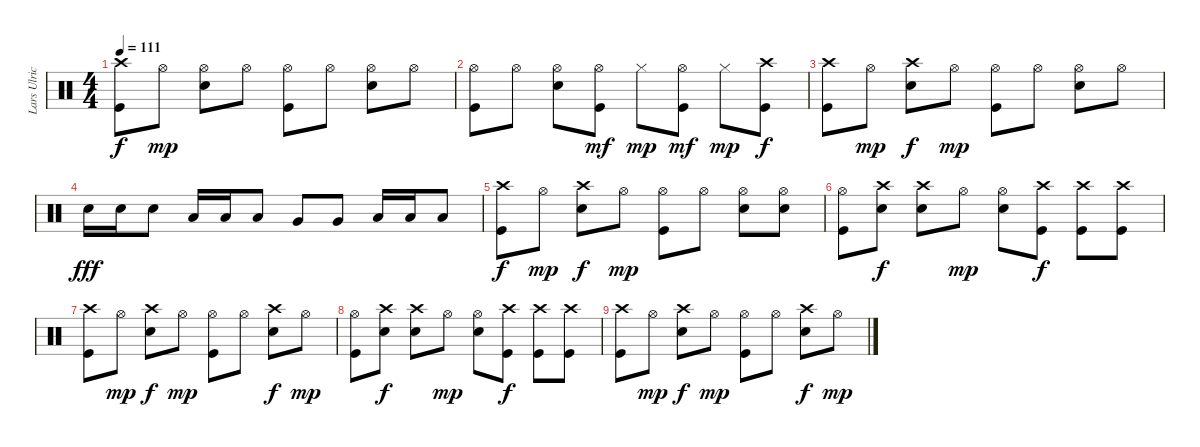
\track ("Lars Ulrich (Drums)" "Lars Ulric") {instrument percussion}
\staff {score}
\articulation defaults
\ts (4 4)
\tempo 111
\clef neutral
\ks c
("Crash high (hit)" "Kick (hit)").8{dy f} "Hi-Hat (open)".8{dy mp} ("Hi-Hat (open)" "Snare (hit) 2").8 "Hi-Hat (open)".8 ("Hi-Hat (open)" "Kick (hit)").8 "Hi-Hat (open)".8 ("Hi-Hat (open)" "Snare (hit) 2").8 "Hi-Hat (open)".8 |
("Hi-Hat (open)" "Kick (hit)").8 "Hi-Hat (open)".8 ("Hi-Hat (open)" "Snare (hit) 2").8 ("Hi-Hat (open)" "Kick (hit)").8{dy mf} "Hi-Hat (closed)".8{dy mp} ("Hi-Hat (open)" "Kick (hit)").8{dy mf} "Hi-Hat (closed)".8{dy mp} ("Crash high (hit)" "Kick (hit)").8{dy f} |
("Crash high (hit)" "Kick (hit)").8 "Hi-Hat (open)".8{dy mp} ("Crash high (hit)" "Snare (hit) 2").8{dy f} "Hi-Hat (open)".8{dy mp} ("Hi-Hat (open)" "Kick (hit)").8 "Hi-Hat (open)".8 ("Hi-Hat (open)" "Snare (hit) 2").8 "Hi-Hat (open)".8 |
"Snare (hit) 2".16{dy fff} "Snare (hit) 2".16 "Snare (hit) 2".8 "Low Tom (hit)".16 "Low Tom (hit)".16 "Low Tom (hit)".8 "Very Low Tom (hit)".8 "Very Low Tom (hit)".8 "Low Floor Tom (hit)".16 "Low Floor Tom (hit)".16 "Low Floor Tom (hit)".8 |
("Crash high (hit)" "Kick (hit)").8{dy f} "Hi-Hat (open)".8{dy mp} ("Crash high (hit)" "Snare (hit) 2").8{dy f} "Hi-Hat (open)".8{dy mp} ("Hi-Hat (open)" "Kick (hit)").8 "Hi-Hat (open)".8 ("Hi-Hat (open)" "Snare (hit) 2").8 ("Hi-Hat (open)" "Snare (hit) 2").8 |
("Hi-Hat (open)" "Kick (hit)").8 ("Crash high (hit)" "Snare (hit) 2").8{dy f} ("Crash high (hit)" "Snare (hit) 2").8 "Hi-Hat (open)".8{dy mp} ("Hi-Hat (open)" "Snare (hit) 2").8 ("Crash high (hit)" "Kick (hit)").8{dy f} ("Crash high (hit)" "Kick (hit)").8 ("Crash high (hit)" "Kick (hit)").8 |
("Crash high (hit)" "Kick (hit)").8 "Hi-Hat (open)".8{dy mp} ("Crash high (hit)" "Snare (hit) 2").8{dy f} "Hi-Hat (open)".8{dy mp} ("Hi-Hat (open)" "Kick (hit)").8 "Hi-Hat (open)".8 ("Crash high (hit)" "Snare (hit) 2").8{dy f} "Hi-Hat (open)".8{dy mp} |
("Hi-Hat (open)" "Kick (hit)").8 ("Crash high (hit)" "Snare (hit) 2").8{dy f} ("Crash high (hit)" "Snare (hit) 2").8 "Hi-Hat (open)".8{dy mp} ("Hi-Hat (open)" "Snare (hit) 2").8 ("Crash high (hit)" "Kick (hit)").8{dy f} ("Crash high (hit)" "Kick (hit)").8 ("Crash high (hit)" "Kick (hit)").8 |
("Crash high (hit)" "Kick (hit)").8 "Hi-Hat (open)".8{dy mp} ("Crash high (hit)" "Snare (hit) 2").8{dy f} "Hi-Hat (open)".8{dy mp} ("Hi-Hat (open)" "Kick (hit)").8 "Hi-Hat (open)".8 ("Crash high (hit)" "Snare (hit) 2").8{dy f} "Hi-Hat (open)".8{dy mp}
